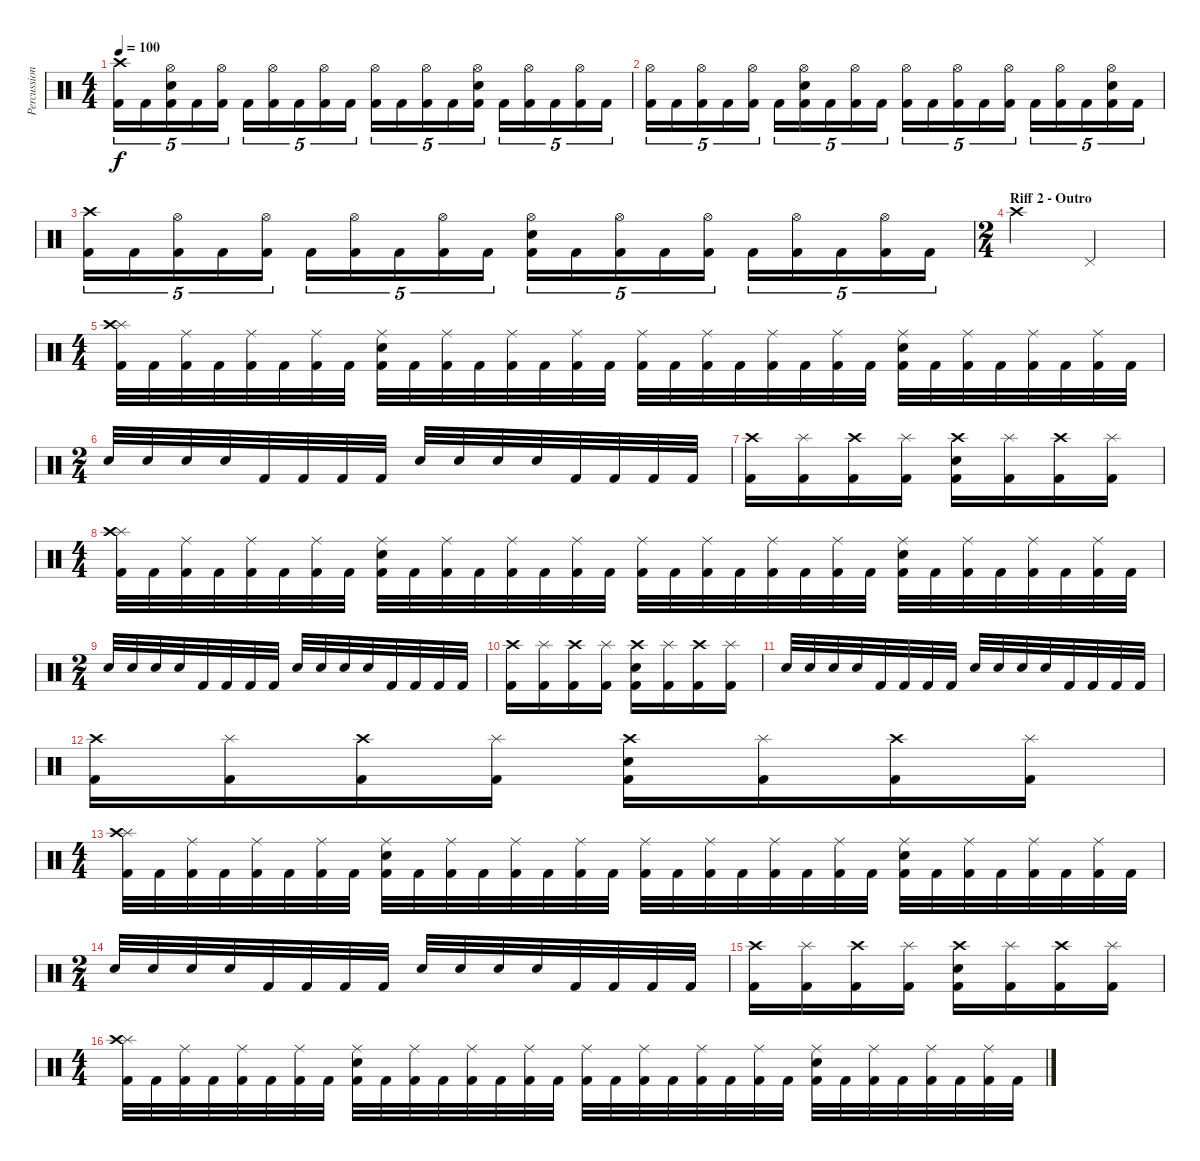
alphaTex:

\track ("Percussion" "Percussion") {instrument percussion}
\staff {score}
\articulation defaults
\ts (4 4)
\tempo 100
\clef neutral
\ks c
("Crash high (hit)" "Kick (hit) 2").16{tu (5 4) dy f} "Kick (hit) 2".16{tu (5 4)} ("Hi-Hat (open)" "Electric Snare (hit)" "Kick (hit) 2").16{tu (5 4)} "Kick (hit) 2".16{tu (5 4)} ("Hi-Hat (open)" "Kick (hit) 2").16{tu (5 4)} "Kick (hit) 2".16{tu (5 4)} ("Hi-Hat (open)" "Kick (hit) 2").16{tu (5 4)} "Kick (hit) 2".16{tu (5 4)} ("Hi-Hat (open)" "Kick (hit) 2").16{tu (5 4)} "Kick (hit) 2".16{tu (5 4)} ("Hi-Hat (open)" "Kick (hit) 2").16{tu (5 4)} "Kick (hit) 2".16{tu (5 4)} ("Hi-Hat (open)" "Kick (hit) 2").16{tu (5 4)} "Kick (hit) 2".16{tu (5 4)} ("Hi-Hat (open)" "Electric Snare (hit)" "Kick (hit) 2").16{tu (5 4)} "Kick (hit) 2".16{tu (5 4)} ("Hi-Hat (open)" "Kick (hit) 2").16{tu (5 4)} "Kick (hit) 2".16{tu (5 4)} ("Hi-Hat (open)" "Kick (hit) 2").16{tu (5 4)} "Kick (hit) 2".16{tu (5 4)} |
("Hi-Hat (open)" "Kick (hit) 2").16{tu (5 4)} "Kick (hit) 2".16{tu (5 4)} ("Hi-Hat (open)" "Kick (hit) 2").16{tu (5 4)} "Kick (hit) 2".16{tu (5 4)} ("Hi-Hat (open)" "Kick (hit) 2").16{tu (5 4)} "Kick (hit) 2".16{tu (5 4)} ("Hi-Hat (open)" "Electric Snare (hit)" "Kick (hit) 2").16{tu (5 4)} "Kick (hit) 2".16{tu (5 4)} ("Hi-Hat (open)" "Kick (hit) 2").16{tu (5 4)} "Kick (hit) 2".16{tu (5 4)} ("Hi-Hat (open)" "Kick (hit) 2").16{tu (5 4)} "Kick (hit) 2".16{tu (5 4)} ("Hi-Hat (open)" "Kick (hit) 2").16{tu (5 4)} "Kick (hit) 2".16{tu (5 4)} ("Hi-Hat (open)" "Kick (hit) 2").16{tu (5 4)} "Kick (hit) 2".16{tu (5 4)} ("Hi-Hat (open)" "Kick (hit) 2").16{tu (5 4)} "Kick (hit) 2".16{tu (5 4)} ("Hi-Hat (open)" "Electric Snare (hit)" "Kick (hit) 2").16{tu (5 4)} "Kick (hit) 2".16{tu (5 4)} |
("Crash high (hit)" "Kick (hit) 2").16{tu (5 4)} "Kick (hit) 2".16{tu (5 4)} ("Hi-Hat (open)" "Kick (hit) 2").16{tu (5 4)} "Kick (hit) 2".16{tu (5 4)} ("Hi-Hat (open)" "Kick (hit) 2").16{tu (5 4)} "Kick (hit) 2".16{tu (5 4)} ("Hi-Hat (open)" "Kick (hit) 2").16{tu (5 4)} "Kick (hit) 2".16{tu (5 4)} ("Hi-Hat (open)" "Kick (hit) 2").16{tu (5 4)} "Kick (hit) 2".16{tu (5 4)} ("Hi-Hat (open)" "Electric Snare (hit)" "Kick (hit) 2").16{tu (5 4)} "Kick (hit) 2".16{tu (5 4)} ("Hi-Hat (open)" "Kick (hit) 2").16{tu (5 4)} "Kick (hit) 2".16{tu (5 4)} ("Hi-Hat (open)" "Kick (hit) 2").16{tu (5 4)} "Kick (hit) 2".16{tu (5 4)} ("Hi-Hat (open)" "Kick (hit) 2").16{tu (5 4)} "Kick (hit) 2".16{tu (5 4)} ("Hi-Hat (open)" "Kick (hit) 2").16{tu (5 4)} "Kick (hit) 2".16{tu (5 4)} |
\ts (2 4)
\section ("" "Riff 2 - Outro")
"Crash high (hit)".4 "Pedal Hi-Hat (hit)".4 |
\ts (4 4)
("Splash (hit)" "Crash high (hit)" "Kick (hit) 2").32 "Kick (hit) 2".32 ("Ride (middle)" "Kick (hit) 2").32 "Kick (hit) 2".32 ("Ride (middle)" "Kick (hit) 2").32 "Kick (hit) 2".32 ("Ride (middle)" "Kick (hit) 2").32 "Kick (hit) 2".32 ("Ride (middle)" "Electric Snare (hit)" "Kick (hit) 2").32 "Kick (hit) 2".32 ("Ride (middle)" "Kick (hit) 2").32 "Kick (hit) 2".32 ("Ride (middle)" "Kick (hit) 2").32 "Kick (hit) 2".32 ("Ride (middle)" "Kick (hit) 2").32 "Kick (hit) 2".32 ("Ride (middle)" "Kick (hit) 2").32 "Kick (hit) 2".32 ("Ride (middle)" "Kick (hit) 2").32 "Kick (hit) 2".32 ("Ride (middle)" "Kick (hit) 2").32 "Kick (hit) 2".32 ("Ride (middle)" "Kick (hit) 2").32 "Kick (hit) 2".32 ("Ride (middle)" "Electric Snare (hit)" "Kick (hit) 2").32 "Kick (hit) 2".32 ("Ride (middle)" "Kick (hit) 2").32 "Kick (hit) 2".32 ("Ride (middle)" "Kick (hit) 2").32 "Kick (hit) 2".32 ("Ride (middle)" "Kick (hit) 2").32 "Kick (hit) 2".32 |
\ts (2 4)
"Electric Snare (hit)".32 "Electric Snare (hit)".32 "Electric Snare (hit)".32 "Electric Snare (hit)".32 "Kick (hit) 2".32 "Kick (hit) 2".32 "Kick (hit) 2".32 "Kick (hit) 2".32 "Electric Snare (hit)".32 "Electric Snare (hit)".32 "Electric Snare (hit)".32 "Electric Snare (hit)".32 "Kick (hit) 2".32 "Kick (hit) 2".32 "Kick (hit) 2".32 "Kick (hit) 2".32 |
("Crash high (hit)" "Kick (hit) 2").16 ("Splash (hit)" "Kick (hit) 2").16 ("Crash high (hit)" "Kick (hit) 2").16 ("Splash (hit)" "Kick (hit) 2").16 ("Crash high (hit)" "Electric Snare (hit)" "Kick (hit) 2").16 ("Splash (hit)" "Kick (hit) 2").16 ("Crash high (hit)" "Kick (hit) 2").16 ("Splash (hit)" "Kick (hit) 2").16 |
\ts (4 4)
("Splash (hit)" "Crash high (hit)" "Kick (hit) 2").32 "Kick (hit) 2".32 ("Ride (middle)" "Kick (hit) 2").32 "Kick (hit) 2".32 ("Ride (middle)" "Kick (hit) 2").32 "Kick (hit) 2".32 ("Ride (middle)" "Kick (hit) 2").32 "Kick (hit) 2".32 ("Ride (middle)" "Electric Snare (hit)" "Kick (hit) 2").32 "Kick (hit) 2".32 ("Ride (middle)" "Kick (hit) 2").32 "Kick (hit) 2".32 ("Ride (middle)" "Kick (hit) 2").32 "Kick (hit) 2".32 ("Ride (middle)" "Kick (hit) 2").32 "Kick (hit) 2".32 ("Ride (middle)" "Kick (hit) 2").32 "Kick (hit) 2".32 ("Ride (middle)" "Kick (hit) 2").32 "Kick (hit) 2".32 ("Ride (middle)" "Kick (hit) 2").32 "Kick (hit) 2".32 ("Ride (middle)" "Kick (hit) 2").32 "Kick (hit) 2".32 ("Ride (middle)" "Electric Snare (hit)" "Kick (hit) 2").32 "Kick (hit) 2".32 ("Ride (middle)" "Kick (hit) 2").32 "Kick (hit) 2".32 ("Ride (middle)" "Kick (hit) 2").32 "Kick (hit) 2".32 ("Ride (middle)" "Kick (hit) 2").32 "Kick (hit) 2".32 |
\ts (2 4)
"Electric Snare (hit)".32 "Electric Snare (hit)".32 "Electric Snare (hit)".32 "Electric Snare (hit)".32 "Kick (hit) 2".32 "Kick (hit) 2".32 "Kick (hit) 2".32 "Kick (hit) 2".32 "Electric Snare (hit)".32 "Electric Snare (hit)".32 "Electric Snare (hit)".32 "Electric Snare (hit)".32 "Kick (hit) 2".32 "Kick (hit) 2".32 "Kick (hit) 2".32 "Kick (hit) 2".32 |
("Crash high (hit)" "Kick (hit) 2").16 ("Splash (hit)" "Kick (hit) 2").16 ("Crash high (hit)" "Kick (hit) 2").16 ("Splash (hit)" "Kick (hit) 2").16 ("Crash high (hit)" "Electric Snare (hit)" "Kick (hit) 2").16 ("Splash (hit)" "Kick (hit) 2").16 ("Crash high (hit)" "Kick (hit) 2").16 ("Splash (hit)" "Kick (hit) 2").16 |
"Electric Snare (hit)".32 "Electric Snare (hit)".32 "Electric Snare (hit)".32 "Electric Snare (hit)".32 "Kick (hit) 2".32 "Kick (hit) 2".32 "Kick (hit) 2".32 "Kick (hit) 2".32 "Electric Snare (hit)".32 "Electric Snare (hit)".32 "Electric Snare (hit)".32 "Electric Snare (hit)".32 "Kick (hit) 2".32 "Kick (hit) 2".32 "Kick (hit) 2".32 "Kick (hit) 2".32 |
("Crash high (hit)" "Kick (hit) 2").16 ("Splash (hit)" "Kick (hit) 2").16 ("Crash high (hit)" "Kick (hit) 2").16 ("Splash (hit)" "Kick (hit) 2").16 ("Crash high (hit)" "Electric Snare (hit)" "Kick (hit) 2").16 ("Splash (hit)" "Kick (hit) 2").16 ("Crash high (hit)" "Kick (hit) 2").16 ("Splash (hit)" "Kick (hit) 2").16 |
\ts (4 4)
("Splash (hit)" "Crash high (hit)" "Kick (hit) 2").32 "Kick (hit) 2".32 ("Ride (middle)" "Kick (hit) 2").32 "Kick (hit) 2".32 ("Ride (middle)" "Kick (hit) 2").32 "Kick (hit) 2".32 ("Ride (middle)" "Kick (hit) 2").32 "Kick (hit) 2".32 ("Ride (middle)" "Electric Snare (hit)" "Kick (hit) 2").32 "Kick (hit) 2".32 ("Ride (middle)" "Kick (hit) 2").32 "Kick (hit) 2".32 ("Ride (middle)" "Kick (hit) 2").32 "Kick (hit) 2".32 ("Ride (middle)" "Kick (hit) 2").32 "Kick (hit) 2".32 ("Ride (middle)" "Kick (hit) 2").32 "Kick (hit) 2".32 ("Ride (middle)" "Kick (hit) 2").32 "Kick (hit) 2".32 ("Ride (middle)" "Kick (hit) 2").32 "Kick (hit) 2".32 ("Ride (middle)" "Kick (hit) 2").32 "Kick (hit) 2".32 ("Ride (middle)" "Electric Snare (hit)" "Kick (hit) 2").32 "Kick (hit) 2".32 ("Ride (middle)" "Kick (hit) 2").32 "Kick (hit) 2".32 ("Ride (middle)" "Kick (hit) 2").32 "Kick (hit) 2".32 ("Ride (middle)" "Kick (hit) 2").32 "Kick (hit) 2".32 |
\ts (2 4)
"Electric Snare (hit)".32 "Electric Snare (hit)".32 "Electric Snare (hit)".32 "Electric Snare (hit)".32 "Kick (hit) 2".32 "Kick (hit) 2".32 "Kick (hit) 2".32 "Kick (hit) 2".32 "Electric Snare (hit)".32 "Electric Snare (hit)".32 "Electric Snare (hit)".32 "Electric Snare (hit)".32 "Kick (hit) 2".32 "Kick (hit) 2".32 "Kick (hit) 2".32 "Kick (hit) 2".32 |
("Crash high (hit)" "Kick (hit) 2").16 ("Splash (hit)" "Kick (hit) 2").16 ("Crash high (hit)" "Kick (hit) 2").16 ("Splash (hit)" "Kick (hit) 2").16 ("Crash high (hit)" "Electric Snare (hit)" "Kick (hit) 2").16 ("Splash (hit)" "Kick (hit) 2").16 ("Crash high (hit)" "Kick (hit) 2").16 ("Splash (hit)" "Kick (hit) 2").16 |
\ts (4 4)
("Splash (hit)" "Crash high (hit)" "Kick (hit) 2").32 "Kick (hit) 2".32 ("Ride (middle)" "Kick (hit) 2").32 "Kick (hit) 2".32 ("Ride (middle)" "Kick (hit) 2").32 "Kick (hit) 2".32 ("Ride (middle)" "Kick (hit) 2").32 "Kick (hit) 2".32 ("Ride (middle)" "Electric Snare (hit)" "Kick (hit) 2").32 "Kick (hit) 2".32 ("Ride (middle)" "Kick (hit) 2").32 "Kick (hit) 2".32 ("Ride (middle)" "Kick (hit) 2").32 "Kick (hit) 2".32 ("Ride (middle)" "Kick (hit) 2").32 "Kick (hit) 2".32 ("Ride (middle)" "Kick (hit) 2").32 "Kick (hit) 2".32 ("Ride (middle)" "Kick (hit) 2").32 "Kick (hit) 2".32 ("Ride (middle)" "Kick (hit) 2").32 "Kick (hit) 2".32 ("Ride (middle)" "Kick (hit) 2").32 "Kick (hit) 2".32 ("Ride (middle)" "Electric Snare (hit)" "Kick (hit) 2").32 "Kick (hit) 2".32 ("Ride (middle)" "Kick (hit) 2").32 "Kick (hit) 2".32 ("Ride (middle)" "Kick (hit) 2").32 "Kick (hit) 2".32 ("Ride (middle)" "Kick (hit) 2").32 "Kick (hit) 2".32
